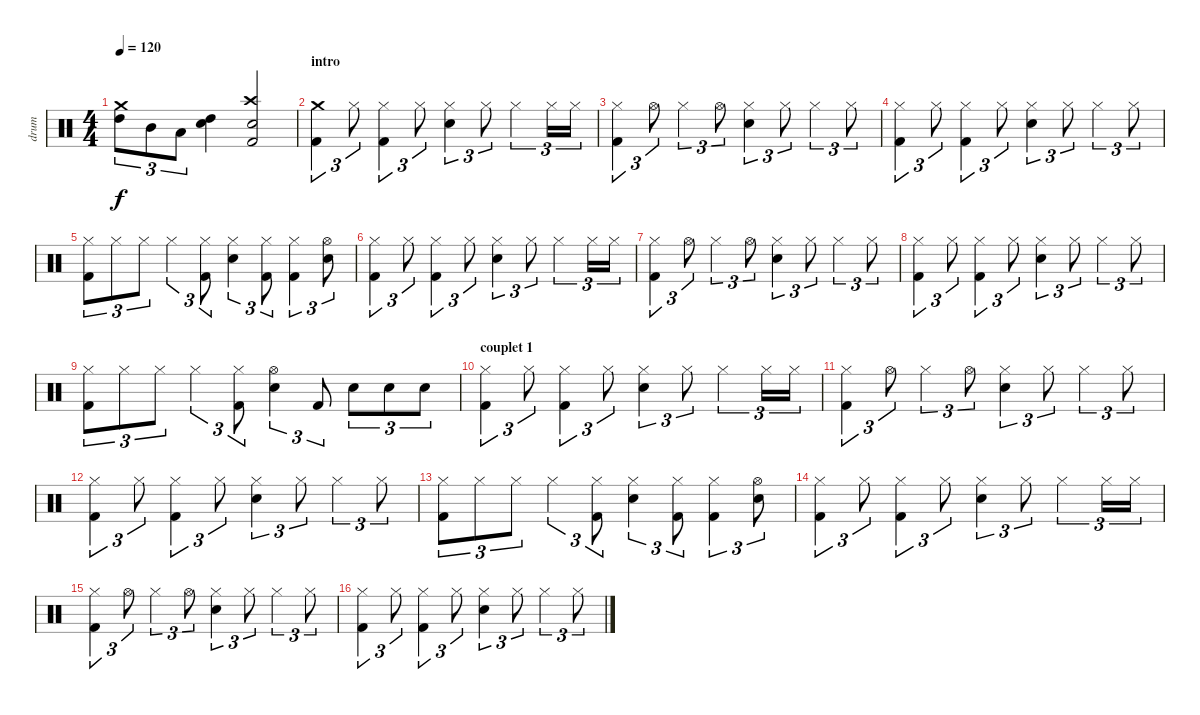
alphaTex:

\track ("drum" "drum") {instrument percussion}
\staff {score}
\articulation defaults
\ts (4 4)
\tempo 120
\clef neutral
\ks c
("Crash medium (hit)" "High Tom (hit)").8{tu (3 2) dy f} "Mid Tom (hit)".8{tu (3 2)} "Low Tom (hit)".8{tu (3 2)} ("High Tom (hit)" "Electric Snare (hit)").4 ("Crash high (hit)" "Electric Snare (hit)" "Kick (hit) 2").2 |
\section ("" "intro")
("Crash medium (hit)" "Kick (hit) 2").4{tu (3 2)} "Hi-Hat (closed)".8{tu (3 2)} ("Hi-Hat (closed)" "Kick (hit) 2").4{tu (3 2)} "Hi-Hat (closed)".8{tu (3 2)} ("Hi-Hat (closed)" "Electric Snare (hit)").4{tu (3 2)} "Hi-Hat (closed)".8{tu (3 2)} "Hi-Hat (closed)".4{tu (3 2)} "Hi-Hat (closed)".16{tu (3 2)} "Hi-Hat (closed)".16{tu (3 2)} |
("Hi-Hat (closed)" "Kick (hit) 2").4{tu (3 2)} "Hi-Hat (open)".8{tu (3 2)} "Hi-Hat (closed)".4{tu (3 2)} "Hi-Hat (open)".8{tu (3 2)} ("Hi-Hat (closed)" "Electric Snare (hit)").4{tu (3 2)} "Hi-Hat (closed)".8{tu (3 2)} "Hi-Hat (closed)".4{tu (3 2)} "Hi-Hat (closed)".8{tu (3 2)} |
("Hi-Hat (closed)" "Kick (hit) 2").4{tu (3 2)} "Hi-Hat (closed)".8{tu (3 2)} ("Hi-Hat (closed)" "Kick (hit) 2").4{tu (3 2)} "Hi-Hat (closed)".8{tu (3 2)} ("Hi-Hat (closed)" "Electric Snare (hit)").4{tu (3 2)} "Hi-Hat (closed)".8{tu (3 2)} "Hi-Hat (closed)".4{tu (3 2)} "Hi-Hat (closed)".8{tu (3 2)} |
("Hi-Hat (closed)" "Kick (hit) 2").8{tu (3 2)} "Hi-Hat (closed)".8{tu (3 2)} "Hi-Hat (closed)".8{tu (3 2)} "Hi-Hat (closed)".4{tu (3 2)} ("Hi-Hat (closed)" "Kick (hit) 2").8{tu (3 2)} ("Hi-Hat (closed)" "Electric Snare (hit)").4{tu (3 2)} ("Hi-Hat (closed)" "Kick (hit) 2").8{tu (3 2)} ("Hi-Hat (closed)" "Kick (hit) 2").4{tu (3 2)} ("Hi-Hat (open)" "Electric Snare (hit)").8{tu (3 2)} |
("Hi-Hat (closed)" "Kick (hit) 2").4{tu (3 2)} "Hi-Hat (closed)".8{tu (3 2)} ("Hi-Hat (closed)" "Kick (hit) 2").4{tu (3 2)} "Hi-Hat (closed)".8{tu (3 2)} ("Hi-Hat (closed)" "Electric Snare (hit)").4{tu (3 2)} "Hi-Hat (closed)".8{tu (3 2)} "Hi-Hat (closed)".4{tu (3 2)} "Hi-Hat (closed)".16{tu (3 2)} "Hi-Hat (closed)".16{tu (3 2)} |
("Hi-Hat (closed)" "Kick (hit) 2").4{tu (3 2)} "Hi-Hat (open)".8{tu (3 2)} "Hi-Hat (closed)".4{tu (3 2)} "Hi-Hat (open)".8{tu (3 2)} ("Hi-Hat (closed)" "Electric Snare (hit)").4{tu (3 2)} "Hi-Hat (closed)".8{tu (3 2)} "Hi-Hat (closed)".4{tu (3 2)} "Hi-Hat (closed)".8{tu (3 2)} |
("Hi-Hat (closed)" "Kick (hit) 2").4{tu (3 2)} "Hi-Hat (closed)".8{tu (3 2)} ("Hi-Hat (closed)" "Kick (hit) 2").4{tu (3 2)} "Hi-Hat (closed)".8{tu (3 2)} ("Hi-Hat (closed)" "Electric Snare (hit)").4{tu (3 2)} "Hi-Hat (closed)".8{tu (3 2)} "Hi-Hat (closed)".4{tu (3 2)} "Hi-Hat (closed)".8{tu (3 2)} |
("Hi-Hat (closed)" "Kick (hit) 2").8{tu (3 2)} "Hi-Hat (closed)".8{tu (3 2)} "Hi-Hat (closed)".8{tu (3 2)} "Hi-Hat (closed)".4{tu (3 2)} ("Hi-Hat (closed)" "Kick (hit) 2").8{tu (3 2)} ("Hi-Hat (open)" "Electric Snare (hit)").4{tu (3 2)} "Kick (hit) 2".8{tu (3 2)} "Electric Snare (hit)".8{tu (3 2)} "Electric Snare (hit)".8{tu (3 2)} "Electric Snare (hit)".8{tu (3 2)} |
\section ("" "couplet 1")
("Hi-Hat (closed)" "Kick (hit) 2").4{tu (3 2)} "Hi-Hat (closed)".8{tu (3 2)} ("Hi-Hat (closed)" "Kick (hit) 2").4{tu (3 2)} "Hi-Hat (closed)".8{tu (3 2)} ("Hi-Hat (closed)" "Electric Snare (hit)").4{tu (3 2)} "Hi-Hat (closed)".8{tu (3 2)} "Hi-Hat (closed)".4{tu (3 2)} "Hi-Hat (closed)".16{tu (3 2)} "Hi-Hat (closed)".16{tu (3 2)} |
("Hi-Hat (closed)" "Kick (hit) 2").4{tu (3 2)} "Hi-Hat (open)".8{tu (3 2)} "Hi-Hat (closed)".4{tu (3 2)} "Hi-Hat (open)".8{tu (3 2)} ("Hi-Hat (closed)" "Electric Snare (hit)").4{tu (3 2)} "Hi-Hat (closed)".8{tu (3 2)} "Hi-Hat (closed)".4{tu (3 2)} "Hi-Hat (closed)".8{tu (3 2)} |
("Hi-Hat (closed)" "Kick (hit) 2").4{tu (3 2)} "Hi-Hat (closed)".8{tu (3 2)} ("Hi-Hat (closed)" "Kick (hit) 2").4{tu (3 2)} "Hi-Hat (closed)".8{tu (3 2)} ("Hi-Hat (closed)" "Electric Snare (hit)").4{tu (3 2)} "Hi-Hat (closed)".8{tu (3 2)} "Hi-Hat (closed)".4{tu (3 2)} "Hi-Hat (closed)".8{tu (3 2)} |
("Hi-Hat (closed)" "Kick (hit) 2").8{tu (3 2)} "Hi-Hat (closed)".8{tu (3 2)} "Hi-Hat (closed)".8{tu (3 2)} "Hi-Hat (closed)".4{tu (3 2)} ("Hi-Hat (closed)" "Kick (hit) 2").8{tu (3 2)} ("Hi-Hat (closed)" "Electric Snare (hit)").4{tu (3 2)} ("Hi-Hat (closed)" "Kick (hit) 2").8{tu (3 2)} ("Hi-Hat (closed)" "Kick (hit) 2").4{tu (3 2)} ("Hi-Hat (open)" "Electric Snare (hit)").8{tu (3 2)} |
("Hi-Hat (closed)" "Kick (hit) 2").4{tu (3 2)} "Hi-Hat (closed)".8{tu (3 2)} ("Hi-Hat (closed)" "Kick (hit) 2").4{tu (3 2)} "Hi-Hat (closed)".8{tu (3 2)} ("Hi-Hat (closed)" "Electric Snare (hit)").4{tu (3 2)} "Hi-Hat (closed)".8{tu (3 2)} "Hi-Hat (closed)".4{tu (3 2)} "Hi-Hat (closed)".16{tu (3 2)} "Hi-Hat (closed)".16{tu (3 2)} |
("Hi-Hat (closed)" "Kick (hit) 2").4{tu (3 2)} "Hi-Hat (open)".8{tu (3 2)} "Hi-Hat (closed)".4{tu (3 2)} "Hi-Hat (open)".8{tu (3 2)} ("Hi-Hat (closed)" "Electric Snare (hit)").4{tu (3 2)} "Hi-Hat (closed)".8{tu (3 2)} "Hi-Hat (closed)".4{tu (3 2)} "Hi-Hat (closed)".8{tu (3 2)} |
("Hi-Hat (closed)" "Kick (hit) 2").4{tu (3 2)} "Hi-Hat (closed)".8{tu (3 2)} ("Hi-Hat (closed)" "Kick (hit) 2").4{tu (3 2)} "Hi-Hat (closed)".8{tu (3 2)} ("Hi-Hat (closed)" "Electric Snare (hit)").4{tu (3 2)} "Hi-Hat (closed)".8{tu (3 2)} "Hi-Hat (closed)".4{tu (3 2)} "Hi-Hat (closed)".8{tu (3 2)}
